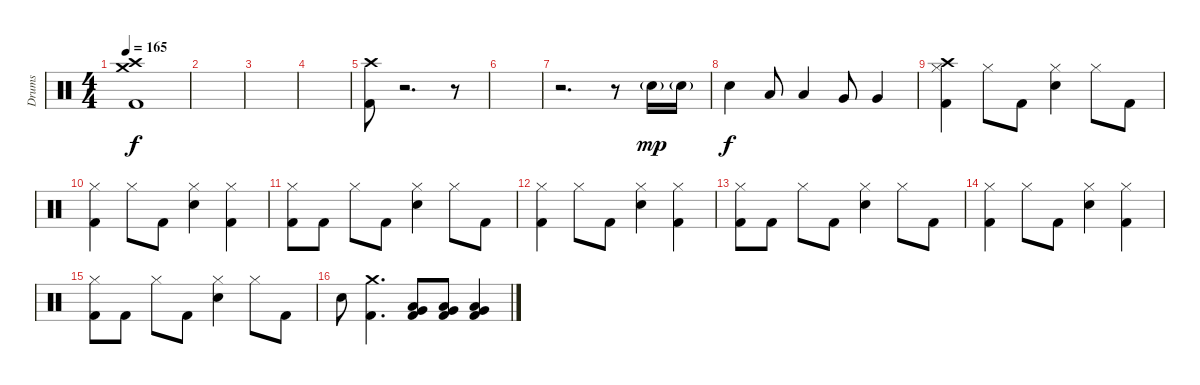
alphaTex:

\track ("Drums" "Drums") {instrument percussion}
\staff {score}
\articulation defaults
\ts (4 4)
\tempo 165
\clef neutral
\ks c
("Crash high (hit)" "Crash medium (hit)" "Kick (hit) 2").1{dy f} |
|
|
|
("Crash high (hit)" "Kick (hit) 2").8 r.2{d} r.8 |
|
r.2{d} r.8 "Electric Snare (hit)"{g}.16{dy mp} "Electric Snare (hit)"{g}.16 |
"Electric Snare (hit)".4{dy f} "Low Tom (hit)".8 "Low Tom (hit)".4 "Very Low Tom (hit)".8 "Very Low Tom (hit)".4 |
("Crash high (hit)" "Hi-Hat (closed)" "Kick (hit) 2").4 "Hi-Hat (closed)".8 "Kick (hit) 2".8 ("Hi-Hat (closed)" "Electric Snare (hit)").4 "Hi-Hat (closed)".8 "Kick (hit) 2".8 |
("Hi-Hat (closed)" "Kick (hit) 2").4 "Hi-Hat (closed)".8 "Kick (hit) 2".8 ("Hi-Hat (closed)" "Electric Snare (hit)").4 ("Hi-Hat (closed)" "Kick (hit) 2").4 |
("Hi-Hat (closed)" "Kick (hit) 2").8 "Kick (hit) 2".8 "Hi-Hat (closed)".8 "Kick (hit) 2".8 ("Hi-Hat (closed)" "Electric Snare (hit)").4 "Hi-Hat (closed)".8 "Kick (hit) 2".8 |
("Hi-Hat (closed)" "Kick (hit) 2").4 "Hi-Hat (closed)".8 "Kick (hit) 2".8 ("Hi-Hat (closed)" "Electric Snare (hit)").4 ("Hi-Hat (closed)" "Kick (hit) 2").4 |
("Hi-Hat (closed)" "Kick (hit) 2").8 "Kick (hit) 2".8 "Hi-Hat (closed)".8 "Kick (hit) 2".8 ("Hi-Hat (closed)" "Electric Snare (hit)").4 "Hi-Hat (closed)".8 "Kick (hit) 2".8 |
("Hi-Hat (closed)" "Kick (hit) 2").4 "Hi-Hat (closed)".8 "Kick (hit) 2".8 ("Hi-Hat (closed)" "Electric Snare (hit)").4 ("Hi-Hat (closed)" "Kick (hit) 2").4 |
("Hi-Hat (closed)" "Kick (hit) 2").8 "Kick (hit) 2".8 "Hi-Hat (closed)".8 "Kick (hit) 2".8 ("Hi-Hat (closed)" "Electric Snare (hit)").4 "Hi-Hat (closed)".8 "Kick (hit) 2".8 |
"Electric Snare (hit)".8 ("Crash medium (hit)" "Kick (hit) 2").4{d} ("Low Tom (hit)" "Very Low Tom (hit)" "Kick (hit) 2").8 ("Low Tom (hit)" "Very Low Tom (hit)" "Kick (hit) 2").8 ("Low Tom (hit)" "Very Low Tom (hit)" "Kick (hit) 2").4
